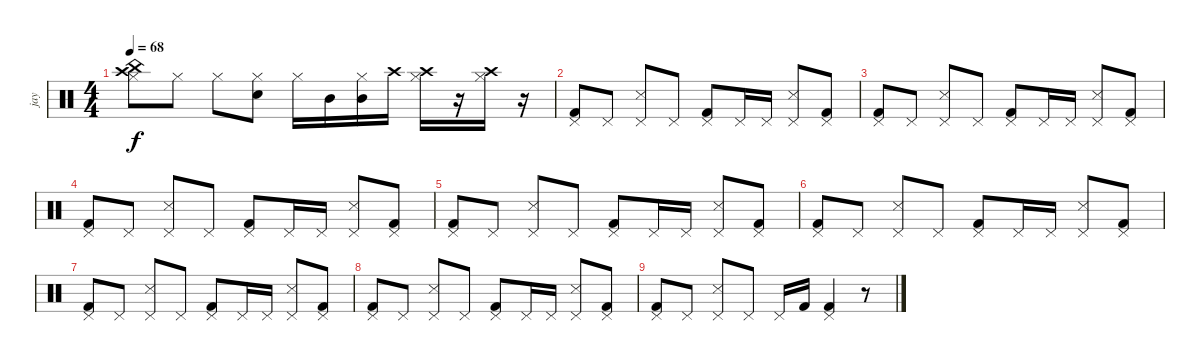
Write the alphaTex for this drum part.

\track ("jay" "jay") {instrument percussion}
\staff {score}
\articulation defaults
\ts (4 4)
\tempo 68
\clef neutral
\ks c
("China (hit)" "Crash high (hit)" "Hi-Hat (closed)").8{dy f} "Hi-Hat (closed)".8 "Hi-Hat (closed)".8 ("Snare (hit) 2" "Hi-Hat (closed)").8 "Hi-Hat (closed)".16 "Mid Tom (hit)".16 ("Mid Tom (hit)" "Hi-Hat (closed)").16 "Crash high (hit)".16 ("Crash high (hit)" "Hi-Hat (closed)").16 r.16 ("Crash high (hit)" "Hi-Hat (closed)").16 r.16 |
("Kick (hit) 2" "Pedal Hi-Hat (hit)").8 "Pedal Hi-Hat (hit)".8 ("Snare (side stick) 3" "Pedal Hi-Hat (hit)").8 "Pedal Hi-Hat (hit)".8 ("Kick (hit) 2" "Pedal Hi-Hat (hit)").8 "Pedal Hi-Hat (hit)".16 "Pedal Hi-Hat (hit)".16 ("Snare (side stick) 3" "Pedal Hi-Hat (hit)").8 ("Kick (hit) 2" "Pedal Hi-Hat (hit)").8 |
("Kick (hit) 2" "Pedal Hi-Hat (hit)").8 "Pedal Hi-Hat (hit)".8 ("Snare (side stick) 3" "Pedal Hi-Hat (hit)").8 "Pedal Hi-Hat (hit)".8 ("Kick (hit) 2" "Pedal Hi-Hat (hit)").8 "Pedal Hi-Hat (hit)".16 "Pedal Hi-Hat (hit)".16 ("Snare (side stick) 3" "Pedal Hi-Hat (hit)").8 ("Kick (hit) 2" "Pedal Hi-Hat (hit)").8 |
("Kick (hit) 2" "Pedal Hi-Hat (hit)").8 "Pedal Hi-Hat (hit)".8 ("Snare (side stick) 3" "Pedal Hi-Hat (hit)").8 "Pedal Hi-Hat (hit)".8 ("Kick (hit) 2" "Pedal Hi-Hat (hit)").8 "Pedal Hi-Hat (hit)".16 "Pedal Hi-Hat (hit)".16 ("Snare (side stick) 3" "Pedal Hi-Hat (hit)").8 ("Kick (hit) 2" "Pedal Hi-Hat (hit)").8 |
("Kick (hit) 2" "Pedal Hi-Hat (hit)").8 "Pedal Hi-Hat (hit)".8 ("Snare (side stick) 3" "Pedal Hi-Hat (hit)").8 "Pedal Hi-Hat (hit)".8 ("Kick (hit) 2" "Pedal Hi-Hat (hit)").8 "Pedal Hi-Hat (hit)".16 "Pedal Hi-Hat (hit)".16 ("Snare (side stick) 3" "Pedal Hi-Hat (hit)").8 ("Kick (hit) 2" "Pedal Hi-Hat (hit)").8 |
("Kick (hit) 2" "Pedal Hi-Hat (hit)").8 "Pedal Hi-Hat (hit)".8 ("Snare (side stick) 3" "Pedal Hi-Hat (hit)").8 "Pedal Hi-Hat (hit)".8 ("Kick (hit) 2" "Pedal Hi-Hat (hit)").8 "Pedal Hi-Hat (hit)".16 "Pedal Hi-Hat (hit)".16 ("Snare (side stick) 3" "Pedal Hi-Hat (hit)").8 ("Kick (hit) 2" "Pedal Hi-Hat (hit)").8 |
("Kick (hit) 2" "Pedal Hi-Hat (hit)").8 "Pedal Hi-Hat (hit)".8 ("Snare (side stick) 3" "Pedal Hi-Hat (hit)").8 "Pedal Hi-Hat (hit)".8 ("Kick (hit) 2" "Pedal Hi-Hat (hit)").8 "Pedal Hi-Hat (hit)".16 "Pedal Hi-Hat (hit)".16 ("Snare (side stick) 3" "Pedal Hi-Hat (hit)").8 ("Kick (hit) 2" "Pedal Hi-Hat (hit)").8 |
("Kick (hit) 2" "Pedal Hi-Hat (hit)").8 "Pedal Hi-Hat (hit)".8 ("Snare (side stick) 3" "Pedal Hi-Hat (hit)").8 "Pedal Hi-Hat (hit)".8 ("Kick (hit) 2" "Pedal Hi-Hat (hit)").8 "Pedal Hi-Hat (hit)".16 "Pedal Hi-Hat (hit)".16 ("Snare (side stick) 3" "Pedal Hi-Hat (hit)").8 ("Kick (hit) 2" "Pedal Hi-Hat (hit)").8 |
("Kick (hit) 2" "Pedal Hi-Hat (hit)").8 "Pedal Hi-Hat (hit)".8 ("Snare (side stick) 3" "Pedal Hi-Hat (hit)").8 "Pedal Hi-Hat (hit)".8 "Pedal Hi-Hat (hit)".16 "Kick (hit) 2".16 ("Kick (hit) 2" "Pedal Hi-Hat (hit)").4 r.8
